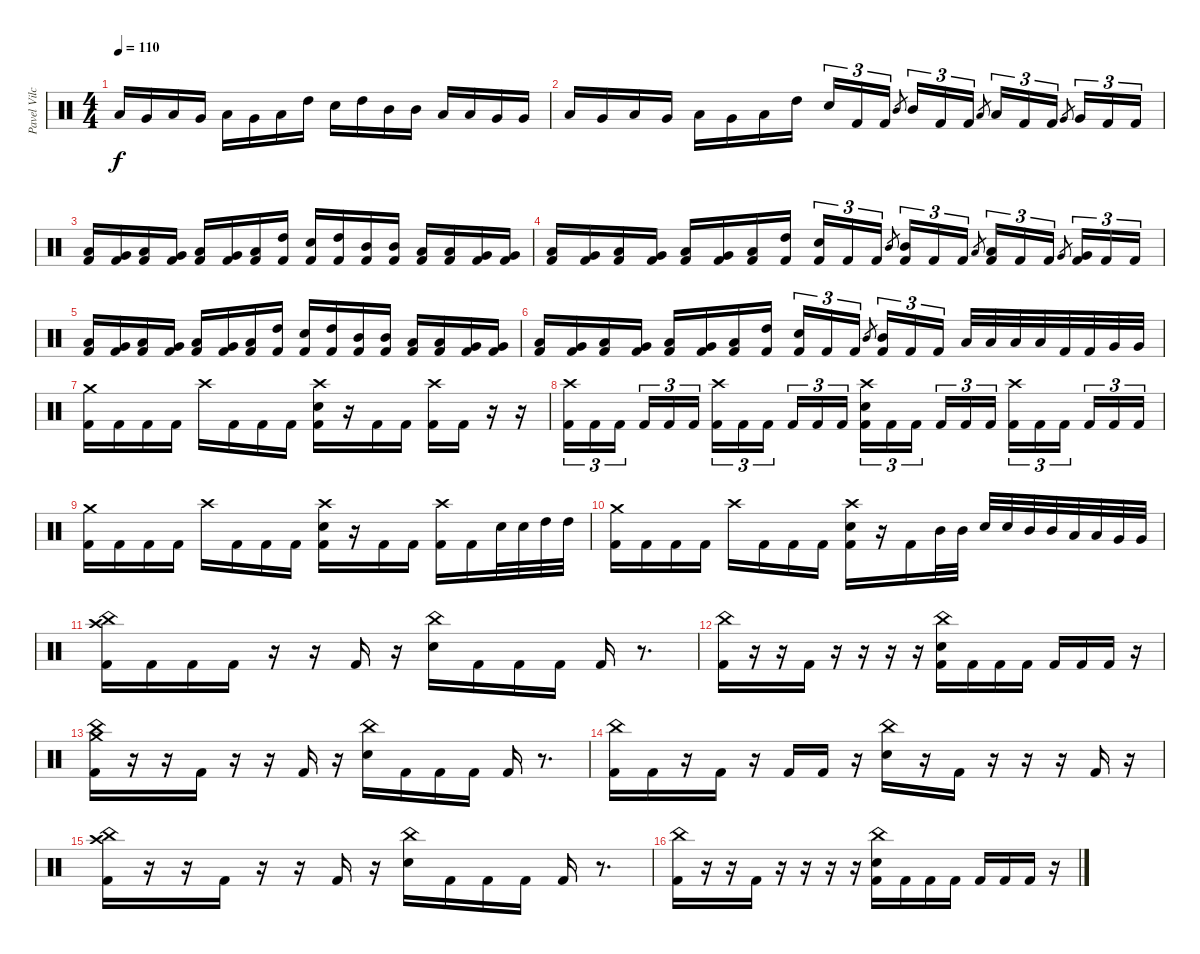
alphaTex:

\track ("Pavel Vilchytski" "Pavel Vilc") {instrument percussion}
\staff {score}
\articulation defaults
\ts (4 4)
\tempo 110
\clef neutral
\ks c "Low Tom (hit)".16{dy f} "Very Low Tom (hit)".16 "Low Tom (hit)".16 "Very Low Tom (hit)".16 "Low Tom (hit)".16 "Very Low Tom (hit)".16 "Low Tom (hit)".16 "High Tom (hit)".16 "Electric Snare (hit)".16 "High Tom (hit)".16 "Mid Tom (hit)".16 "Mid Tom (hit)".16 "Low Tom (hit)".16 "Low Tom (hit)".16 "Very Low Tom (hit)".16 "Very Low Tom (hit)".16
|
"Low Tom (hit)".16 "Very Low Tom (hit)".16 "Low Tom (hit)".16 "Very Low Tom (hit)".16 "Low Tom (hit)".16 "Very Low Tom (hit)".16 "Low Tom (hit)".16 "High Tom (hit)".16 "Electric Snare (hit)".16{tu (3 2)} "Kick (hit) 2".16{tu (3 2)} "Kick (hit) 2".16{tu (3 2)} "Mid Tom (hit)".8{gr beam splitsecondary} "Mid Tom (hit)".16{tu (3 2)} "Kick (hit) 2".16{tu (3 2)} "Kick (hit) 2".16{tu (3 2)} "Low Tom (hit)".8{gr} "Low Tom (hit)".16{tu (3 2)} "Kick (hit) 2".16{tu (3 2)} "Kick (hit) 2".16{tu (3 2)} "Very Low Tom (hit)".8{gr beam splitsecondary} "Very Low Tom (hit)".16{tu (3 2)} "Kick (hit) 2".16{tu (3 2)} "Kick (hit) 2".16{tu (3 2)} |
("Low Tom (hit)" "Kick (hit) 2").16 ("Very Low Tom (hit)" "Kick (hit) 2").16 ("Low Tom (hit)" "Kick (hit) 2").16 ("Very Low Tom (hit)" "Kick (hit) 2").16 ("Low Tom (hit)" "Kick (hit) 2").16 ("Very Low Tom (hit)" "Kick (hit) 2").16 ("Low Tom (hit)" "Kick (hit) 2").16 ("High Tom (hit)" "Kick (hit) 2").16 ("Electric Snare (hit)" "Kick (hit) 2").16 ("High Tom (hit)" "Kick (hit) 2").16 ("Mid Tom (hit)" "Kick (hit) 2").16 ("Mid Tom (hit)" "Kick (hit) 2").16 ("Low Tom (hit)" "Kick (hit) 2").16 ("Low Tom (hit)" "Kick (hit) 2").16 ("Very Low Tom (hit)" "Kick (hit) 2").16 ("Very Low Tom (hit)" "Kick (hit) 2").16 |
("Low Tom (hit)" "Kick (hit) 2").16 ("Very Low Tom (hit)" "Kick (hit) 2").16 ("Low Tom (hit)" "Kick (hit) 2").16 ("Very Low Tom (hit)" "Kick (hit) 2").16 ("Low Tom (hit)" "Kick (hit) 2").16 ("Very Low Tom (hit)" "Kick (hit) 2").16 ("Low Tom (hit)" "Kick (hit) 2").16 ("High Tom (hit)" "Kick (hit) 2").16 ("Electric Snare (hit)" "Kick (hit) 2").16{tu (3 2)} "Kick (hit) 2".16{tu (3 2)} "Kick (hit) 2".16{tu (3 2)} "Mid Tom (hit)".8{gr beam splitsecondary} ("Mid Tom (hit)" "Kick (hit) 2").16{tu (3 2)} "Kick (hit) 2".16{tu (3 2)} "Kick (hit) 2".16{tu (3 2)} "Low Tom (hit)".8{gr} ("Low Tom (hit)" "Kick (hit) 2").16{tu (3 2)} "Kick (hit) 2".16{tu (3 2)} "Kick (hit) 2".16{tu (3 2)} "Very Low Tom (hit)".8{gr beam splitsecondary} ("Very Low Tom (hit)" "Kick (hit) 2").16{tu (3 2)} "Kick (hit) 2".16{tu (3 2)} "Kick (hit) 2".16{tu (3 2)} |
("Low Tom (hit)" "Kick (hit) 2").16 ("Very Low Tom (hit)" "Kick (hit) 2").16 ("Low Tom (hit)" "Kick (hit) 2").16 ("Very Low Tom (hit)" "Kick (hit) 2").16 ("Low Tom (hit)" "Kick (hit) 2").16 ("Very Low Tom (hit)" "Kick (hit) 2").16 ("Low Tom (hit)" "Kick (hit) 2").16 ("High Tom (hit)" "Kick (hit) 2").16 ("Electric Snare (hit)" "Kick (hit) 2").16 ("High Tom (hit)" "Kick (hit) 2").16 ("Mid Tom (hit)" "Kick (hit) 2").16 ("Mid Tom (hit)" "Kick (hit) 2").16 ("Low Tom (hit)" "Kick (hit) 2").16 ("Low Tom (hit)" "Kick (hit) 2").16 ("Very Low Tom (hit)" "Kick (hit) 2").16 ("Very Low Tom (hit)" "Kick (hit) 2").16 |
("Low Tom (hit)" "Kick (hit) 2").16 ("Very Low Tom (hit)" "Kick (hit) 2").16 ("Low Tom (hit)" "Kick (hit) 2").16 ("Very Low Tom (hit)" "Kick (hit) 2").16 ("Low Tom (hit)" "Kick (hit) 2").16 ("Very Low Tom (hit)" "Kick (hit) 2").16 ("Low Tom (hit)" "Kick (hit) 2").16 ("High Tom (hit)" "Kick (hit) 2").16 ("Electric Snare (hit)" "Kick (hit) 2").16{tu (3 2)} "Kick (hit) 2".16{tu (3 2)} "Kick (hit) 2".16{tu (3 2)} "Mid Tom (hit)".8{gr beam splitsecondary} ("Mid Tom (hit)" "Kick (hit) 2").16{tu (3 2)} "Kick (hit) 2".16{tu (3 2)} "Kick (hit) 2".16{tu (3 2)} "Low Tom (hit)".32 "Low Tom (hit)".32 "Low Tom (hit)".32 "Low Tom (hit)".32 "Kick (hit) 2".32 "Kick (hit) 2".32 "Very Low Tom (hit)".32 "Very Low Tom (hit)".32 |
("Crash medium (hit)" "Kick (hit) 2").16 "Kick (hit) 2".16 "Kick (hit) 2".16 "Kick (hit) 2".16 "Crash high (hit)".16 "Kick (hit) 2".16 "Kick (hit) 2".16 "Kick (hit) 2".16 ("Crash high (hit)" "Electric Snare (hit)" "Kick (hit) 2").16 r.16 "Kick (hit) 2".16 "Kick (hit) 2".16 ("Crash high (hit)" "Kick (hit) 2").16 "Kick (hit) 2".16 r.16 r.16 |
("Crash high (hit)" "Kick (hit) 2").16{tu (3 2)} "Kick (hit) 2".16{tu (3 2)} "Kick (hit) 2".16{tu (3 2) beam splitsecondary} "Kick (hit) 2".16{tu (3 2)} "Kick (hit) 2".16{tu (3 2)} "Kick (hit) 2".16{tu (3 2)} ("Crash high (hit)" "Kick (hit) 2").16{tu (3 2)} "Kick (hit) 2".16{tu (3 2)} "Kick (hit) 2".16{tu (3 2) beam splitsecondary} "Kick (hit) 2".16{tu (3 2)} "Kick (hit) 2".16{tu (3 2)} "Kick (hit) 2".16{tu (3 2)} ("Crash high (hit)" "Electric Snare (hit)" "Kick (hit) 2").16{tu (3 2)} "Kick (hit) 2".16{tu (3 2)} "Kick (hit) 2".16{tu (3 2) beam splitsecondary} "Kick (hit) 2".16{tu (3 2)} "Kick (hit) 2".16{tu (3 2)} "Kick (hit) 2".16{tu (3 2)} ("Crash high (hit)" "Kick (hit) 2").16{tu (3 2)} "Kick (hit) 2".16{tu (3 2)} "Kick (hit) 2".16{tu (3 2) beam splitsecondary} "Kick (hit) 2".16{tu (3 2)} "Kick (hit) 2".16{tu (3 2)} "Kick (hit) 2".16{tu (3 2)} |
("Crash medium (hit)" "Kick (hit) 2").16 "Kick (hit) 2".16 "Kick (hit) 2".16 "Kick (hit) 2".16 "Crash high (hit)".16 "Kick (hit) 2".16 "Kick (hit) 2".16 "Kick (hit) 2".16 ("Crash high (hit)" "Electric Snare (hit)" "Kick (hit) 2").16 r.16 "Kick (hit) 2".16 "Kick (hit) 2".16 ("Crash high (hit)" "Kick (hit) 2").16 "Kick (hit) 2".16 "Electric Snare (hit)".32 "Electric Snare (hit)".32 "High Tom (hit)".32 "High Tom (hit)".32 |
("Crash medium (hit)" "Kick (hit) 2").16 "Kick (hit) 2".16 "Kick (hit) 2".16 "Kick (hit) 2".16 "Crash high (hit)".16 "Kick (hit) 2".16 "Kick (hit) 2".16 "Kick (hit) 2".16 ("Crash high (hit)" "Electric Snare (hit)" "Kick (hit) 2").16 r.16 "Kick (hit) 2".16 "Mid Tom (hit)".32 "Mid Tom (hit)".32 "Electric Snare (hit)".32 "Electric Snare (hit)".32 "Mid Tom (hit)".32 "Mid Tom (hit)".32 "Low Tom (hit)".32 "Low Tom (hit)".32 "Very Low Tom (hit)".32 "Very Low Tom (hit)".32 |
("China (hit)" "Crash high (hit)" "Kick (hit) 2").16 "Kick (hit) 2".16 "Kick (hit) 2".16 "Kick (hit) 2".16 r.16 r.16 "Kick (hit) 2".16 r.16 ("China (hit)" "Electric Snare (hit)").16 "Kick (hit) 2".16 "Kick (hit) 2".16 "Kick (hit) 2".16 "Kick (hit) 2".16 r.8{d} |
("China (hit)" "Kick (hit) 2").16 r.16 r.16 "Kick (hit) 2".16 r.16 r.16 r.16 r.16 ("China (hit)" "Electric Snare (hit)" "Kick (hit) 2").16 "Kick (hit) 2".16 "Kick (hit) 2".16 "Kick (hit) 2".16 "Kick (hit) 2".16 "Kick (hit) 2".16 "Kick (hit) 2".16 r.16 |
("China (hit)" "Crash medium (hit)" "Kick (hit) 2").16 r.16 r.16 "Kick (hit) 2".16 r.16 r.16 "Kick (hit) 2".16 r.16 ("China (hit)" "Electric Snare (hit)").16 "Kick (hit) 2".16 "Kick (hit) 2".16 "Kick (hit) 2".16 "Kick (hit) 2".16 r.8{d} |
("China (hit)" "Kick (hit) 2").16 "Kick (hit) 2".16 r.16 "Kick (hit) 2".16 r.16 "Kick (hit) 2".16 "Kick (hit) 2".16 r.16 ("China (hit)" "Electric Snare (hit)").16 r.16 "Kick (hit) 2".16 r.16 r.16 r.16 "Kick (hit) 2".16 r.16 |
("China (hit)" "Crash high (hit)" "Kick (hit) 2").16 r.16 r.16 "Kick (hit) 2".16 r.16 r.16 "Kick (hit) 2".16 r.16 ("China (hit)" "Electric Snare (hit)").16 "Kick (hit) 2".16 "Kick (hit) 2".16 "Kick (hit) 2".16 "Kick (hit) 2".16 r.8{d} |
("China (hit)" "Kick (hit) 2").16 r.16 r.16 "Kick (hit) 2".16 r.16 r.16 r.16 r.16 ("China (hit)" "Electric Snare (hit)" "Kick (hit) 2").16 "Kick (hit) 2".16 "Kick (hit) 2".16 "Kick (hit) 2".16 "Kick (hit) 2".16 "Kick (hit) 2".16 "Kick (hit) 2".16 r.16
